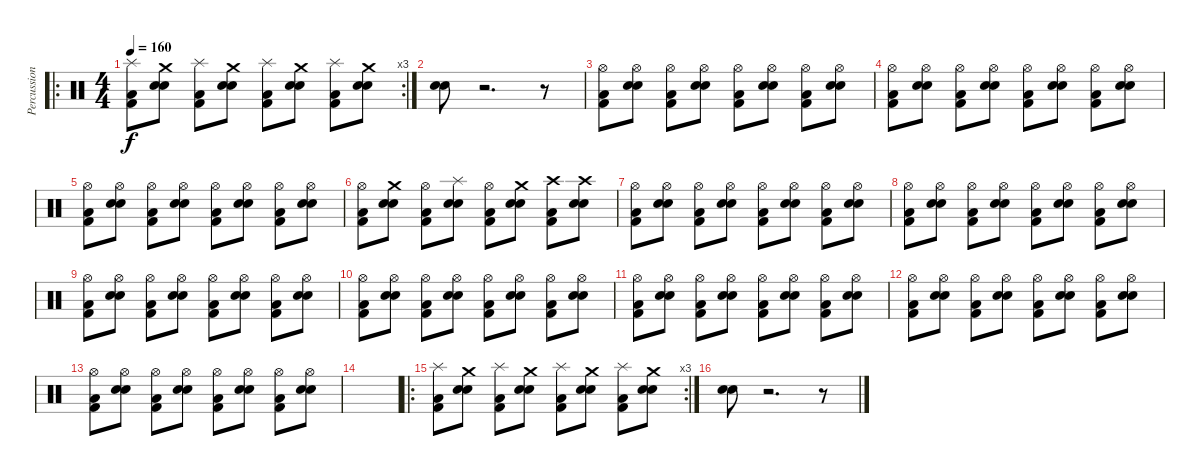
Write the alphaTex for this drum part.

\track ("Percussions" "Percussion") {instrument percussion}
\staff {score}
\articulation defaults
\ro
\rc 3
\ts (4 4)
\tempo 160
\clef neutral
\ks c
("Splash (hit)" "Kick (hit) 2" "Low Floor Tom (hit)").8{dy f} ("Crash medium (hit)" "Snare (hit) 2" "Electric Snare (hit)").8 ("Splash (hit)" "Kick (hit) 2" "Low Floor Tom (hit)").8 ("Crash medium (hit)" "Snare (hit) 2" "Electric Snare (hit)").8 ("Splash (hit)" "Kick (hit) 2" "Low Floor Tom (hit)").8 ("Crash medium (hit)" "Snare (hit) 2" "Electric Snare (hit)").8 ("Splash (hit)" "Kick (hit) 2" "Low Floor Tom (hit)").8 ("Crash medium (hit)" "Snare (hit) 2" "Electric Snare (hit)").8 |
("Snare (hit) 2" "Electric Snare (hit)").8 r.2{d} r.8 |
("Hi-Hat (open)" "Kick (hit) 2" "Low Floor Tom (hit)").8 ("Hi-Hat (open)" "Snare (hit) 2" "Electric Snare (hit)").8 ("Hi-Hat (open)" "Kick (hit) 2" "Low Floor Tom (hit)").8 ("Hi-Hat (open)" "Snare (hit) 2" "Electric Snare (hit)").8 ("Hi-Hat (open)" "Kick (hit) 2" "Low Floor Tom (hit)").8 ("Hi-Hat (open)" "Snare (hit) 2" "Electric Snare (hit)").8 ("Hi-Hat (open)" "Kick (hit) 2" "Low Floor Tom (hit)").8 ("Hi-Hat (open)" "Snare (hit) 2" "Electric Snare (hit)").8 |
("Hi-Hat (open)" "Kick (hit) 2" "Low Floor Tom (hit)").8 ("Hi-Hat (open)" "Snare (hit) 2" "Electric Snare (hit)").8 ("Hi-Hat (open)" "Kick (hit) 2" "Low Floor Tom (hit)").8 ("Hi-Hat (open)" "Snare (hit) 2" "Electric Snare (hit)").8 ("Hi-Hat (open)" "Kick (hit) 2" "Low Floor Tom (hit)").8 ("Hi-Hat (open)" "Snare (hit) 2" "Electric Snare (hit)").8 ("Hi-Hat (open)" "Kick (hit) 2" "Low Floor Tom (hit)").8 ("Hi-Hat (open)" "Snare (hit) 2" "Electric Snare (hit)").8 |
("Hi-Hat (open)" "Kick (hit) 2" "Low Floor Tom (hit)").8 ("Hi-Hat (open)" "Snare (hit) 2" "Electric Snare (hit)").8 ("Hi-Hat (open)" "Kick (hit) 2" "Low Floor Tom (hit)").8 ("Hi-Hat (open)" "Snare (hit) 2" "Electric Snare (hit)").8 ("Hi-Hat (open)" "Kick (hit) 2" "Low Floor Tom (hit)").8 ("Hi-Hat (open)" "Snare (hit) 2" "Electric Snare (hit)").8 ("Hi-Hat (open)" "Kick (hit) 2" "Low Floor Tom (hit)").8 ("Hi-Hat (open)" "Snare (hit) 2" "Electric Snare (hit)").8 |
("Hi-Hat (open)" "Kick (hit) 2" "Low Floor Tom (hit)").8 ("Crash medium (hit)" "Snare (hit) 2" "Electric Snare (hit)").8 ("Hi-Hat (open)" "Kick (hit) 2" "Low Floor Tom (hit)").8 ("Splash (hit)" "Snare (hit) 2" "Electric Snare (hit)").8 ("Hi-Hat (open)" "Kick (hit) 2" "Low Floor Tom (hit)").8 ("Crash medium (hit)" "Snare (hit) 2" "Electric Snare (hit)").8 ("Crash high (hit)" "Kick (hit) 2" "Low Floor Tom (hit)").8 ("Crash high (hit)" "Snare (hit) 2" "Electric Snare (hit)").8 |
("Hi-Hat (open)" "Kick (hit) 2" "Low Floor Tom (hit)").8 ("Hi-Hat (open)" "Snare (hit) 2" "Electric Snare (hit)").8 ("Hi-Hat (open)" "Kick (hit) 2" "Low Floor Tom (hit)").8 ("Hi-Hat (open)" "Snare (hit) 2" "Electric Snare (hit)").8 ("Hi-Hat (open)" "Kick (hit) 2" "Low Floor Tom (hit)").8 ("Hi-Hat (open)" "Snare (hit) 2" "Electric Snare (hit)").8 ("Hi-Hat (open)" "Kick (hit) 2" "Low Floor Tom (hit)").8 ("Hi-Hat (open)" "Snare (hit) 2" "Electric Snare (hit)").8 |
("Hi-Hat (open)" "Kick (hit) 2" "Low Floor Tom (hit)").8 ("Hi-Hat (open)" "Snare (hit) 2" "Electric Snare (hit)").8 ("Hi-Hat (open)" "Kick (hit) 2" "Low Floor Tom (hit)").8 ("Hi-Hat (open)" "Snare (hit) 2" "Electric Snare (hit)").8 ("Hi-Hat (open)" "Kick (hit) 2" "Low Floor Tom (hit)").8 ("Hi-Hat (open)" "Snare (hit) 2" "Electric Snare (hit)").8 ("Hi-Hat (open)" "Kick (hit) 2" "Low Floor Tom (hit)").8 ("Hi-Hat (open)" "Snare (hit) 2" "Electric Snare (hit)").8 |
("Hi-Hat (open)" "Kick (hit) 2" "Low Floor Tom (hit)").8 ("Hi-Hat (open)" "Snare (hit) 2" "Electric Snare (hit)").8 ("Hi-Hat (open)" "Kick (hit) 2" "Low Floor Tom (hit)").8 ("Hi-Hat (open)" "Snare (hit) 2" "Electric Snare (hit)").8 ("Hi-Hat (open)" "Kick (hit) 2" "Low Floor Tom (hit)").8 ("Hi-Hat (open)" "Snare (hit) 2" "Electric Snare (hit)").8 ("Hi-Hat (open)" "Kick (hit) 2" "Low Floor Tom (hit)").8 ("Hi-Hat (open)" "Snare (hit) 2" "Electric Snare (hit)").8 |
("Hi-Hat (open)" "Kick (hit) 2" "Low Floor Tom (hit)").8 ("Hi-Hat (open)" "Snare (hit) 2" "Electric Snare (hit)").8 ("Hi-Hat (open)" "Kick (hit) 2" "Low Floor Tom (hit)").8 ("Hi-Hat (open)" "Snare (hit) 2" "Electric Snare (hit)").8 ("Hi-Hat (open)" "Kick (hit) 2" "Low Floor Tom (hit)").8 ("Hi-Hat (open)" "Snare (hit) 2" "Electric Snare (hit)").8 ("Hi-Hat (open)" "Kick (hit) 2" "Low Floor Tom (hit)").8 ("Hi-Hat (open)" "Snare (hit) 2" "Electric Snare (hit)").8 |
("Hi-Hat (open)" "Kick (hit) 2" "Low Floor Tom (hit)").8 ("Hi-Hat (open)" "Snare (hit) 2" "Electric Snare (hit)").8 ("Hi-Hat (open)" "Kick (hit) 2" "Low Floor Tom (hit)").8 ("Hi-Hat (open)" "Snare (hit) 2" "Electric Snare (hit)").8 ("Hi-Hat (open)" "Kick (hit) 2" "Low Floor Tom (hit)").8 ("Hi-Hat (open)" "Snare (hit) 2" "Electric Snare (hit)").8 ("Hi-Hat (open)" "Kick (hit) 2" "Low Floor Tom (hit)").8 ("Hi-Hat (open)" "Snare (hit) 2" "Electric Snare (hit)").8 |
("Hi-Hat (open)" "Kick (hit) 2" "Low Floor Tom (hit)").8 ("Hi-Hat (open)" "Snare (hit) 2" "Electric Snare (hit)").8 ("Hi-Hat (open)" "Kick (hit) 2" "Low Floor Tom (hit)").8 ("Hi-Hat (open)" "Snare (hit) 2" "Electric Snare (hit)").8 ("Hi-Hat (open)" "Kick (hit) 2" "Low Floor Tom (hit)").8 ("Hi-Hat (open)" "Snare (hit) 2" "Electric Snare (hit)").8 ("Hi-Hat (open)" "Kick (hit) 2" "Low Floor Tom (hit)").8 ("Hi-Hat (open)" "Snare (hit) 2" "Electric Snare (hit)").8 |
("Hi-Hat (open)" "Kick (hit) 2" "Low Floor Tom (hit)").8 ("Hi-Hat (open)" "Snare (hit) 2" "Electric Snare (hit)").8 ("Hi-Hat (open)" "Kick (hit) 2" "Low Floor Tom (hit)").8 ("Hi-Hat (open)" "Snare (hit) 2" "Electric Snare (hit)").8 ("Hi-Hat (open)" "Kick (hit) 2" "Low Floor Tom (hit)").8 ("Hi-Hat (open)" "Snare (hit) 2" "Electric Snare (hit)").8 ("Hi-Hat (open)" "Kick (hit) 2" "Low Floor Tom (hit)").8 ("Hi-Hat (open)" "Snare (hit) 2" "Electric Snare (hit)").8 |
|
\ro
\rc 3
("Splash (hit)" "Kick (hit) 2" "Low Floor Tom (hit)").8 ("Crash medium (hit)" "Snare (hit) 2" "Electric Snare (hit)").8 ("Splash (hit)" "Kick (hit) 2" "Low Floor Tom (hit)").8 ("Crash medium (hit)" "Snare (hit) 2" "Electric Snare (hit)").8 ("Splash (hit)" "Kick (hit) 2" "Low Floor Tom (hit)").8 ("Crash medium (hit)" "Snare (hit) 2" "Electric Snare (hit)").8 ("Splash (hit)" "Kick (hit) 2" "Low Floor Tom (hit)").8 ("Crash medium (hit)" "Snare (hit) 2" "Electric Snare (hit)").8 |
("Snare (hit) 2" "Electric Snare (hit)").8 r.2{d} r.8
